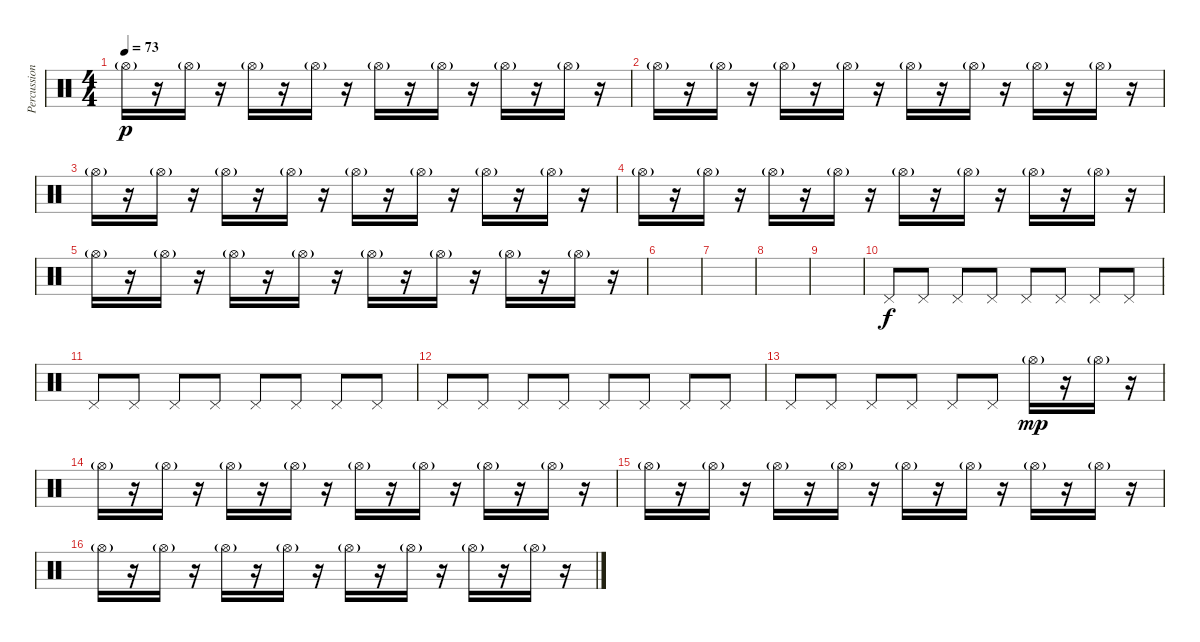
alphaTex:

\track ("Percussion" "Percussion") {instrument percussion}
\staff {score}
\articulation defaults
\ts (4 4)
\tempo 73
\clef neutral
\ks c "Hi-Hat (open)"{g}.16{dy p}
r.16 "Hi-Hat (open)"{g}.16 r.16 "Hi-Hat (open)"{g}.16 r.16 "Hi-Hat (open)"{g}.16 r.16 "Hi-Hat (open)"{g}.16 r.16 "Hi-Hat (open)"{g}.16 r.16 "Hi-Hat (open)"{g}.16 r.16 "Hi-Hat (open)"{g}.16 r.16 |
"Hi-Hat (open)"{g}.16 r.16 "Hi-Hat (open)"{g}.16 r.16 "Hi-Hat (open)"{g}.16 r.16 "Hi-Hat (open)"{g}.16 r.16 "Hi-Hat (open)"{g}.16 r.16 "Hi-Hat (open)"{g}.16 r.16 "Hi-Hat (open)"{g}.16 r.16 "Hi-Hat (open)"{g}.16 r.16 |
"Hi-Hat (open)"{g}.16 r.16 "Hi-Hat (open)"{g}.16 r.16 "Hi-Hat (open)"{g}.16 r.16 "Hi-Hat (open)"{g}.16 r.16 "Hi-Hat (open)"{g}.16 r.16 "Hi-Hat (open)"{g}.16 r.16 "Hi-Hat (open)"{g}.16 r.16 "Hi-Hat (open)"{g}.16 r.16 |
"Hi-Hat (open)"{g}.16 r.16 "Hi-Hat (open)"{g}.16 r.16 "Hi-Hat (open)"{g}.16 r.16 "Hi-Hat (open)"{g}.16 r.16 "Hi-Hat (open)"{g}.16 r.16 "Hi-Hat (open)"{g}.16 r.16 "Hi-Hat (open)"{g}.16 r.16 "Hi-Hat (open)"{g}.16 r.16 |
"Hi-Hat (open)"{g}.16 r.16 "Hi-Hat (open)"{g}.16 r.16 "Hi-Hat (open)"{g}.16 r.16 "Hi-Hat (open)"{g}.16 r.16 "Hi-Hat (open)"{g}.16 r.16 "Hi-Hat (open)"{g}.16 r.16 "Hi-Hat (open)"{g}.16 r.16 "Hi-Hat (open)"{g}.16 r.16 |
|
|
|
|
"Pedal Hi-Hat (hit)".8{dy f} "Pedal Hi-Hat (hit)".8 "Pedal Hi-Hat (hit)".8 "Pedal Hi-Hat (hit)".8 "Pedal Hi-Hat (hit)".8 "Pedal Hi-Hat (hit)".8 "Pedal Hi-Hat (hit)".8 "Pedal Hi-Hat (hit)".8 |
"Pedal Hi-Hat (hit)".8 "Pedal Hi-Hat (hit)".8 "Pedal Hi-Hat (hit)".8 "Pedal Hi-Hat (hit)".8 "Pedal Hi-Hat (hit)".8 "Pedal Hi-Hat (hit)".8 "Pedal Hi-Hat (hit)".8 "Pedal Hi-Hat (hit)".8 |
"Pedal Hi-Hat (hit)".8 "Pedal Hi-Hat (hit)".8 "Pedal Hi-Hat (hit)".8 "Pedal Hi-Hat (hit)".8 "Pedal Hi-Hat (hit)".8 "Pedal Hi-Hat (hit)".8 "Pedal Hi-Hat (hit)".8 "Pedal Hi-Hat (hit)".8 |
"Pedal Hi-Hat (hit)".8 "Pedal Hi-Hat (hit)".8 "Pedal Hi-Hat (hit)".8 "Pedal Hi-Hat (hit)".8 "Pedal Hi-Hat (hit)".8 "Pedal Hi-Hat (hit)".8 "Hi-Hat (open)"{g}.16{dy mp} r.16 "Hi-Hat (open)"{g}.16 r.16 |
"Hi-Hat (open)"{g}.16 r.16 "Hi-Hat (open)"{g}.16 r.16 "Hi-Hat (open)"{g}.16 r.16 "Hi-Hat (open)"{g}.16 r.16 "Hi-Hat (open)"{g}.16 r.16 "Hi-Hat (open)"{g}.16 r.16 "Hi-Hat (open)"{g}.16 r.16 "Hi-Hat (open)"{g}.16 r.16 |
"Hi-Hat (open)"{g}.16 r.16 "Hi-Hat (open)"{g}.16 r.16 "Hi-Hat (open)"{g}.16 r.16 "Hi-Hat (open)"{g}.16 r.16 "Hi-Hat (open)"{g}.16 r.16 "Hi-Hat (open)"{g}.16 r.16 "Hi-Hat (open)"{g}.16 r.16 "Hi-Hat (open)"{g}.16 r.16 |
"Hi-Hat (open)"{g}.16 r.16 "Hi-Hat (open)"{g}.16 r.16 "Hi-Hat (open)"{g}.16 r.16 "Hi-Hat (open)"{g}.16 r.16 "Hi-Hat (open)"{g}.16 r.16 "Hi-Hat (open)"{g}.16 r.16 "Hi-Hat (open)"{g}.16 r.16 "Hi-Hat (open)"{g}.16 r.16
